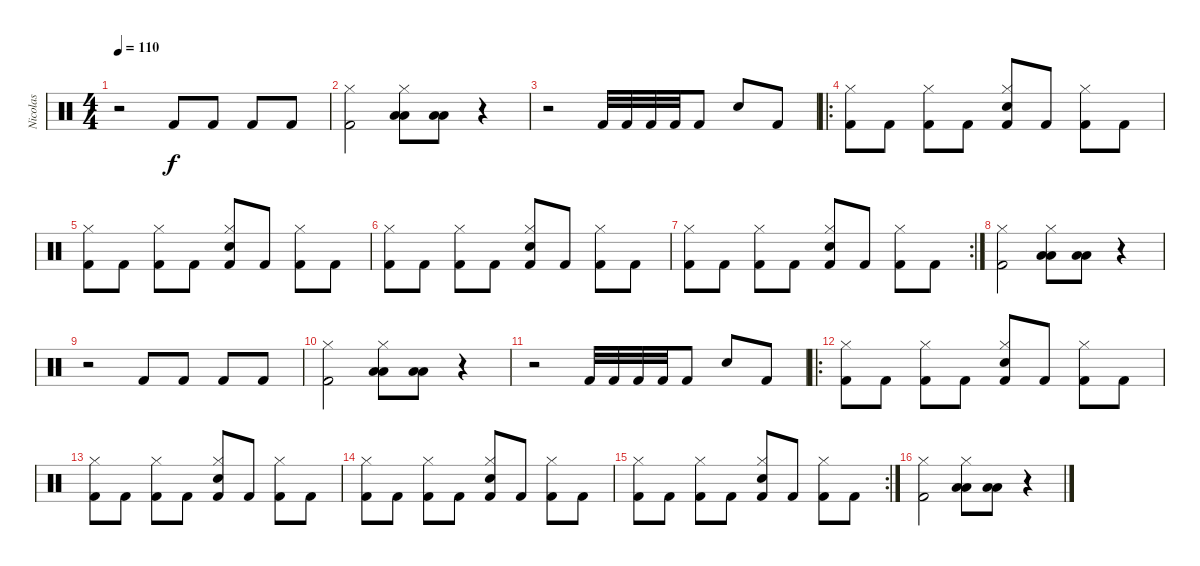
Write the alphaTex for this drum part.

\track ("Nicolas" "Nicolas") {instrument percussion}
\staff {score}
\articulation defaults
\ts (4 4)
\tempo 110
\clef neutral
\ks c
r.2{dy f} "Kick (hit) 2".8 "Kick (hit) 2".8 "Kick (hit) 2".8 "Kick (hit) 2".8 |
("Kick (hit) 2" "Hi-Hat (closed)").2 ("Low Floor Tom (hit)" "Low Tom (hit)" "Hi-Hat (closed)").8 ("Low Floor Tom (hit)" "Low Tom (hit)").8 r.4 |
r.2 "Kick (hit) 2".32 "Kick (hit) 2".32 "Kick (hit) 2".32 "Kick (hit) 2".32 "Kick (hit) 2".8 "Snare (hit) 2".8 "Kick (hit) 2".8 |
\ro
("Kick (hit) 2" "Hi-Hat (closed)").8 "Kick (hit) 2".8 ("Kick (hit) 2" "Hi-Hat (closed)").8 "Kick (hit) 2".8 ("Kick (hit) 2" "Snare (hit) 2" "Hi-Hat (closed)").8 "Kick (hit) 2".8 ("Kick (hit) 2" "Hi-Hat (closed)").8 "Kick (hit) 2".8 |
("Kick (hit) 2" "Hi-Hat (closed)").8 "Kick (hit) 2".8 ("Kick (hit) 2" "Hi-Hat (closed)").8 "Kick (hit) 2".8 ("Kick (hit) 2" "Snare (hit) 2" "Hi-Hat (closed)").8 "Kick (hit) 2".8 ("Kick (hit) 2" "Hi-Hat (closed)").8 "Kick (hit) 2".8 |
("Kick (hit) 2" "Hi-Hat (closed)").8 "Kick (hit) 2".8 ("Kick (hit) 2" "Hi-Hat (closed)").8 "Kick (hit) 2".8 ("Kick (hit) 2" "Snare (hit) 2" "Hi-Hat (closed)").8 "Kick (hit) 2".8 ("Kick (hit) 2" "Hi-Hat (closed)").8 "Kick (hit) 2".8 |
\rc 2
("Kick (hit) 2" "Hi-Hat (closed)").8 "Kick (hit) 2".8 ("Kick (hit) 2" "Hi-Hat (closed)").8 "Kick (hit) 2".8 ("Kick (hit) 2" "Snare (hit) 2" "Hi-Hat (closed)").8 "Kick (hit) 2".8 ("Kick (hit) 2" "Hi-Hat (closed)").8 "Kick (hit) 2".8 |
("Kick (hit) 2" "Hi-Hat (closed)").2 ("Low Floor Tom (hit)" "Low Tom (hit)" "Hi-Hat (closed)").8 ("Low Floor Tom (hit)" "Low Tom (hit)").8 r.4 |
r.2 "Kick (hit) 2".8 "Kick (hit) 2".8 "Kick (hit) 2".8 "Kick (hit) 2".8 |
("Kick (hit) 2" "Hi-Hat (closed)").2 ("Low Floor Tom (hit)" "Low Tom (hit)" "Hi-Hat (closed)").8 ("Low Floor Tom (hit)" "Low Tom (hit)").8 r.4 |
r.2 "Kick (hit) 2".32 "Kick (hit) 2".32 "Kick (hit) 2".32 "Kick (hit) 2".32 "Kick (hit) 2".8 "Snare (hit) 2".8 "Kick (hit) 2".8 |
\ro
("Kick (hit) 2" "Hi-Hat (closed)").8 "Kick (hit) 2".8 ("Kick (hit) 2" "Hi-Hat (closed)").8 "Kick (hit) 2".8 ("Kick (hit) 2" "Snare (hit) 2" "Hi-Hat (closed)").8 "Kick (hit) 2".8 ("Kick (hit) 2" "Hi-Hat (closed)").8 "Kick (hit) 2".8 |
("Kick (hit) 2" "Hi-Hat (closed)").8 "Kick (hit) 2".8 ("Kick (hit) 2" "Hi-Hat (closed)").8 "Kick (hit) 2".8 ("Kick (hit) 2" "Snare (hit) 2" "Hi-Hat (closed)").8 "Kick (hit) 2".8 ("Kick (hit) 2" "Hi-Hat (closed)").8 "Kick (hit) 2".8 |
("Kick (hit) 2" "Hi-Hat (closed)").8 "Kick (hit) 2".8 ("Kick (hit) 2" "Hi-Hat (closed)").8 "Kick (hit) 2".8 ("Kick (hit) 2" "Snare (hit) 2" "Hi-Hat (closed)").8 "Kick (hit) 2".8 ("Kick (hit) 2" "Hi-Hat (closed)").8 "Kick (hit) 2".8 |
\rc 2
("Kick (hit) 2" "Hi-Hat (closed)").8 "Kick (hit) 2".8 ("Kick (hit) 2" "Hi-Hat (closed)").8 "Kick (hit) 2".8 ("Kick (hit) 2" "Snare (hit) 2" "Hi-Hat (closed)").8 "Kick (hit) 2".8 ("Kick (hit) 2" "Hi-Hat (closed)").8 "Kick (hit) 2".8 |
("Kick (hit) 2" "Hi-Hat (closed)").2 ("Low Floor Tom (hit)" "Low Tom (hit)" "Hi-Hat (closed)").8 ("Low Floor Tom (hit)" "Low Tom (hit)").8 r.4
